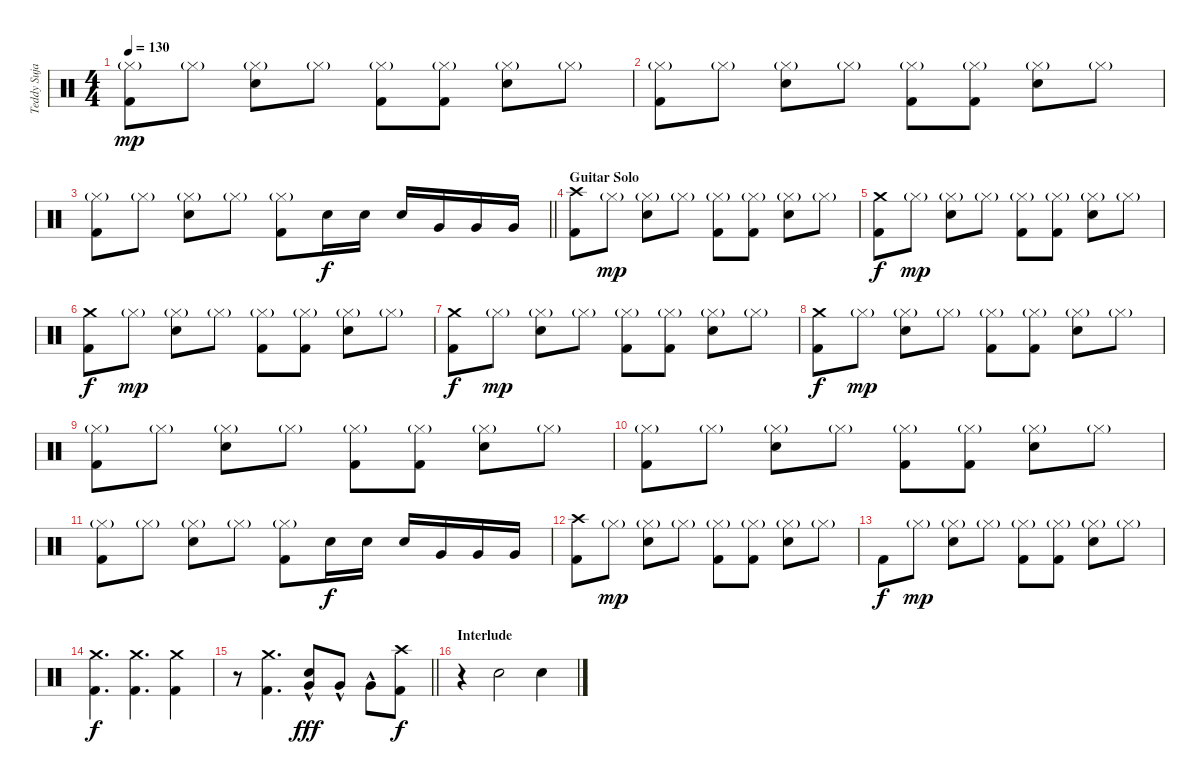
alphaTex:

\track ("Teddy Sujaya" "Teddy Suja") {instrument percussion}
\staff {score}
\articulation defaults
\ts (4 4)
\tempo 130
\clef neutral
\ks c
("Hi-Hat (closed)"{g} "Kick (hit) 2").8{dy mp} "Hi-Hat (closed)"{g}.8 ("Hi-Hat (closed)"{g} "Electric Snare (hit)").8 "Hi-Hat (closed)"{g}.8 ("Hi-Hat (closed)"{g} "Kick (hit) 2").8 ("Hi-Hat (closed)"{g} "Kick (hit) 2").8 ("Hi-Hat (closed)"{g} "Electric Snare (hit)").8 "Hi-Hat (closed)"{g}.8 |
("Hi-Hat (closed)"{g} "Kick (hit) 2").8 "Hi-Hat (closed)"{g}.8 ("Hi-Hat (closed)"{g} "Electric Snare (hit)").8 "Hi-Hat (closed)"{g}.8 ("Hi-Hat (closed)"{g} "Kick (hit) 2").8 ("Hi-Hat (closed)"{g} "Kick (hit) 2").8 ("Hi-Hat (closed)"{g} "Electric Snare (hit)").8 "Hi-Hat (closed)"{g}.8 |
\barLineRight lightlight
("Hi-Hat (closed)"{g} "Kick (hit) 2").8 "Hi-Hat (closed)"{g}.8 ("Hi-Hat (closed)"{g} "Electric Snare (hit)").8 "Hi-Hat (closed)"{g}.8 ("Hi-Hat (closed)"{g} "Kick (hit) 2").8 "Electric Snare (hit)".16{dy f} "Electric Snare (hit)".16 "Electric Snare (hit)".16 "Very Low Tom (hit)".16 "Very Low Tom (hit)".16 "Very Low Tom (hit)".16 |
\section ("" "Guitar Solo")
("Crash high (hit)" "Kick (hit) 2").8 "Hi-Hat (closed)"{g}.8{dy mp} ("Hi-Hat (closed)"{g} "Electric Snare (hit)").8 "Hi-Hat (closed)"{g}.8 ("Hi-Hat (closed)"{g} "Kick (hit) 2").8 ("Hi-Hat (closed)"{g} "Kick (hit) 2").8 ("Hi-Hat (closed)"{g} "Electric Snare (hit)").8 "Hi-Hat (closed)"{g}.8 |
("Crash medium (hit)" "Kick (hit) 2").8{dy f} "Hi-Hat (closed)"{g}.8{dy mp} ("Hi-Hat (closed)"{g} "Electric Snare (hit)").8 "Hi-Hat (closed)"{g}.8 ("Hi-Hat (closed)"{g} "Kick (hit) 2").8 ("Hi-Hat (closed)"{g} "Kick (hit) 2").8 ("Hi-Hat (closed)"{g} "Electric Snare (hit)").8 "Hi-Hat (closed)"{g}.8 |
("Crash medium (hit)" "Kick (hit) 2").8{dy f} "Hi-Hat (closed)"{g}.8{dy mp} ("Hi-Hat (closed)"{g} "Electric Snare (hit)").8 "Hi-Hat (closed)"{g}.8 ("Hi-Hat (closed)"{g} "Kick (hit) 2").8 ("Hi-Hat (closed)"{g} "Kick (hit) 2").8 ("Hi-Hat (closed)"{g} "Electric Snare (hit)").8 "Hi-Hat (closed)"{g}.8 |
("Crash medium (hit)" "Kick (hit) 2").8{dy f} "Hi-Hat (closed)"{g}.8{dy mp} ("Hi-Hat (closed)"{g} "Electric Snare (hit)").8 "Hi-Hat (closed)"{g}.8 ("Hi-Hat (closed)"{g} "Kick (hit) 2").8 ("Hi-Hat (closed)"{g} "Kick (hit) 2").8 ("Hi-Hat (closed)"{g} "Electric Snare (hit)").8 "Hi-Hat (closed)"{g}.8 |
("Crash medium (hit)" "Kick (hit) 2").8{dy f} "Hi-Hat (closed)"{g}.8{dy mp} ("Hi-Hat (closed)"{g} "Electric Snare (hit)").8 "Hi-Hat (closed)"{g}.8 ("Hi-Hat (closed)"{g} "Kick (hit) 2").8 ("Hi-Hat (closed)"{g} "Kick (hit) 2").8 ("Hi-Hat (closed)"{g} "Electric Snare (hit)").8 "Hi-Hat (closed)"{g}.8 |
("Hi-Hat (closed)"{g} "Kick (hit) 2").8 "Hi-Hat (closed)"{g}.8 ("Hi-Hat (closed)"{g} "Electric Snare (hit)").8 "Hi-Hat (closed)"{g}.8 ("Hi-Hat (closed)"{g} "Kick (hit) 2").8 ("Hi-Hat (closed)"{g} "Kick (hit) 2").8 ("Hi-Hat (closed)"{g} "Electric Snare (hit)").8 "Hi-Hat (closed)"{g}.8 |
("Hi-Hat (closed)"{g} "Kick (hit) 2").8 "Hi-Hat (closed)"{g}.8 ("Hi-Hat (closed)"{g} "Electric Snare (hit)").8 "Hi-Hat (closed)"{g}.8 ("Hi-Hat (closed)"{g} "Kick (hit) 2").8 ("Hi-Hat (closed)"{g} "Kick (hit) 2").8 ("Hi-Hat (closed)"{g} "Electric Snare (hit)").8 "Hi-Hat (closed)"{g}.8 |
("Hi-Hat (closed)"{g} "Kick (hit) 2").8 "Hi-Hat (closed)"{g}.8 ("Hi-Hat (closed)"{g} "Electric Snare (hit)").8 "Hi-Hat (closed)"{g}.8 ("Hi-Hat (closed)"{g} "Kick (hit) 2").8 "Electric Snare (hit)".16{dy f} "Electric Snare (hit)".16 "Electric Snare (hit)".16 "Very Low Tom (hit)".16 "Very Low Tom (hit)".16 "Very Low Tom (hit)".16 |
("Crash high (hit)" "Kick (hit) 2").8 "Hi-Hat (closed)"{g}.8{dy mp} ("Hi-Hat (closed)"{g} "Electric Snare (hit)").8 "Hi-Hat (closed)"{g}.8 ("Hi-Hat (closed)"{g} "Kick (hit) 2").8 ("Hi-Hat (closed)"{g} "Kick (hit) 2").8 ("Hi-Hat (closed)"{g} "Electric Snare (hit)").8 "Hi-Hat (closed)"{g}.8 |
"Kick (hit) 2".8{dy f} "Hi-Hat (closed)"{g}.8{dy mp} ("Hi-Hat (closed)"{g} "Electric Snare (hit)").8 "Hi-Hat (closed)"{g}.8 ("Hi-Hat (closed)"{g} "Kick (hit) 2").8 ("Hi-Hat (closed)"{g} "Kick (hit) 2").8 ("Hi-Hat (closed)"{g} "Electric Snare (hit)").8 "Hi-Hat (closed)"{g}.8 |
("Crash medium (hit)" "Kick (hit) 2").4{d dy f} ("Crash medium (hit)" "Kick (hit) 2").4{d} ("Crash medium (hit)" "Kick (hit) 2").4 |
\barLineRight lightlight
r.8 ("Crash medium (hit)" "Kick (hit) 2").4{d} ("Very Low Tom (hit)"{hac} "Electric Snare (hit)"{hac}).8{dy fff} "Very Low Tom (hit)"{hac}.8 "Very Low Tom (hit)"{hac}.8 ("Crash high (hit)" "Kick (hit) 2").8{dy f} |
\section ("" "Interlude")
r.4 "Electric Snare (hit)".2 "Electric Snare (hit)".4
